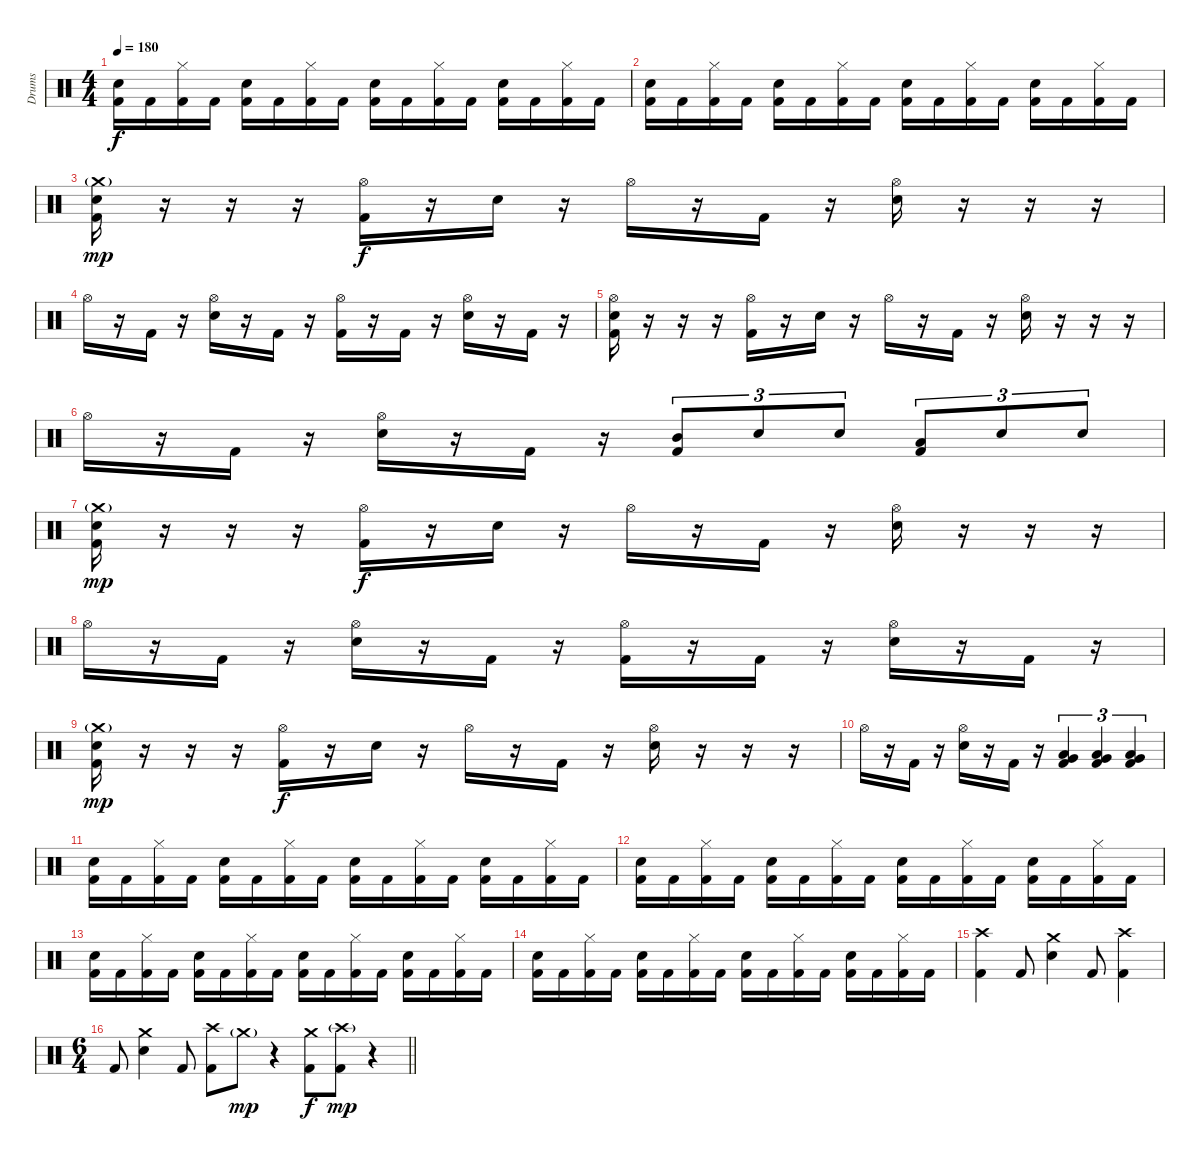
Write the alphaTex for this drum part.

\track ("Drums" "Drums") {instrument percussion}
\staff {score}
\articulation defaults
\ts (4 4)
\tempo 180
\clef neutral
\ks c
("Snare (hit) 2" "Kick (hit) 2").16{dy f} "Kick (hit) 2".16 ("Hi-Hat (closed)" "Kick (hit) 2").16 "Kick (hit) 2".16 ("Snare (hit) 2" "Kick (hit) 2").16 "Kick (hit) 2".16 ("Hi-Hat (closed)" "Kick (hit) 2").16 "Kick (hit) 2".16 ("Snare (hit) 2" "Kick (hit) 2").16 "Kick (hit) 2".16 ("Hi-Hat (closed)" "Kick (hit) 2").16 "Kick (hit) 2".16 ("Snare (hit) 2" "Kick (hit) 2").16 "Kick (hit) 2".16 ("Hi-Hat (closed)" "Kick (hit) 2").16 "Kick (hit) 2".16 |
("Snare (hit) 2" "Kick (hit) 2").16 "Kick (hit) 2".16 ("Hi-Hat (closed)" "Kick (hit) 2").16 "Kick (hit) 2".16 ("Snare (hit) 2" "Kick (hit) 2").16 "Kick (hit) 2".16 ("Hi-Hat (closed)" "Kick (hit) 2").16 "Kick (hit) 2".16 ("Snare (hit) 2" "Kick (hit) 2").16 "Kick (hit) 2".16 ("Hi-Hat (closed)" "Kick (hit) 2").16 "Kick (hit) 2".16 ("Snare (hit) 2" "Kick (hit) 2").16 "Kick (hit) 2".16 ("Hi-Hat (closed)" "Kick (hit) 2").16 "Kick (hit) 2".16 |
("Crash medium (hit)"{g} "Snare (hit) 2" "Kick (hit) 2").16{dy mp} r.16 r.16 r.16 ("Hi-Hat (open)" "Kick (hit) 2").16{dy f} r.16 "Snare (hit) 2".16 r.16 "Hi-Hat (open)".16 r.16 "Kick (hit) 2".16 r.16 ("Hi-Hat (open)" "Snare (hit) 2").16 r.16 r.16 r.16 |
"Hi-Hat (open)".16 r.16 "Kick (hit) 2".16 r.16 ("Hi-Hat (open)" "Snare (hit) 2").16 r.16 "Kick (hit) 2".16 r.16 ("Hi-Hat (open)" "Kick (hit) 2").16 r.16 "Kick (hit) 2".16 r.16 ("Hi-Hat (open)" "Snare (hit) 2").16 r.16 "Kick (hit) 2".16 r.16 |
("Hi-Hat (open)" "Snare (hit) 2" "Kick (hit) 2").16 r.16 r.16 r.16 ("Hi-Hat (open)" "Kick (hit) 2").16 r.16 "Snare (hit) 2".16 r.16 "Hi-Hat (open)".16 r.16 "Kick (hit) 2".16 r.16 ("Hi-Hat (open)" "Snare (hit) 2").16 r.16 r.16 r.16 |
"Hi-Hat (open)".16 r.16 "Kick (hit) 2".16 r.16 ("Hi-Hat (open)" "Snare (hit) 2").16 r.16 "Kick (hit) 2".16 r.16 ("Mid Tom (hit)" "Kick (hit) 2").8{tu (3 2)} "Electric Snare (hit)".8{tu (3 2)} "Electric Snare (hit)".8{tu (3 2)} ("Low Tom (hit)" "Kick (hit) 2").8{tu (3 2)} "Electric Snare (hit)".8{tu (3 2)} "Electric Snare (hit)".8{tu (3 2)} |
("Crash medium (hit)"{g} "Snare (hit) 2" "Kick (hit) 2").16{dy mp} r.16 r.16 r.16 ("Hi-Hat (open)" "Kick (hit) 2").16{dy f} r.16 "Snare (hit) 2".16 r.16 "Hi-Hat (open)".16 r.16 "Kick (hit) 2".16 r.16 ("Hi-Hat (open)" "Snare (hit) 2").16 r.16 r.16 r.16 |
"Hi-Hat (open)".16 r.16 "Kick (hit) 2".16 r.16 ("Hi-Hat (open)" "Snare (hit) 2").16 r.16 "Kick (hit) 2".16 r.16 ("Hi-Hat (open)" "Kick (hit) 2").16 r.16 "Kick (hit) 2".16 r.16 ("Hi-Hat (open)" "Snare (hit) 2").16 r.16 "Kick (hit) 2".16 r.16 |
("Crash medium (hit)"{g} "Snare (hit) 2" "Kick (hit) 2").16{dy mp} r.16 r.16 r.16 ("Hi-Hat (open)" "Kick (hit) 2").16{dy f} r.16 "Snare (hit) 2".16 r.16 "Hi-Hat (open)".16 r.16 "Kick (hit) 2".16 r.16 ("Hi-Hat (open)" "Snare (hit) 2").16 r.16 r.16 r.16 |
"Hi-Hat (open)".16 r.16 "Kick (hit) 2".16 r.16 ("Hi-Hat (open)" "Snare (hit) 2").16 r.16 "Kick (hit) 2".16 r.16 ("Very Low Tom (hit)" "Low Tom (hit)" "Kick (hit) 2").4{tu (3 2)} ("Very Low Tom (hit)" "Low Tom (hit)" "Kick (hit) 2").4{tu (3 2)} ("Very Low Tom (hit)" "Low Tom (hit)" "Kick (hit) 2").4{tu (3 2)} |
("Snare (hit) 2" "Kick (hit) 2").16 "Kick (hit) 2".16 ("Hi-Hat (closed)" "Kick (hit) 2").16 "Kick (hit) 2".16 ("Snare (hit) 2" "Kick (hit) 2").16 "Kick (hit) 2".16 ("Hi-Hat (closed)" "Kick (hit) 2").16 "Kick (hit) 2".16 ("Snare (hit) 2" "Kick (hit) 2").16 "Kick (hit) 2".16 ("Hi-Hat (closed)" "Kick (hit) 2").16 "Kick (hit) 2".16 ("Snare (hit) 2" "Kick (hit) 2").16 "Kick (hit) 2".16 ("Hi-Hat (closed)" "Kick (hit) 2").16 "Kick (hit) 2".16 |
("Snare (hit) 2" "Kick (hit) 2").16 "Kick (hit) 2".16 ("Hi-Hat (closed)" "Kick (hit) 2").16 "Kick (hit) 2".16 ("Snare (hit) 2" "Kick (hit) 2").16 "Kick (hit) 2".16 ("Hi-Hat (closed)" "Kick (hit) 2").16 "Kick (hit) 2".16 ("Snare (hit) 2" "Kick (hit) 2").16 "Kick (hit) 2".16 ("Hi-Hat (closed)" "Kick (hit) 2").16 "Kick (hit) 2".16 ("Snare (hit) 2" "Kick (hit) 2").16 "Kick (hit) 2".16 ("Hi-Hat (closed)" "Kick (hit) 2").16 "Kick (hit) 2".16 |
("Snare (hit) 2" "Kick (hit) 2").16 "Kick (hit) 2".16 ("Hi-Hat (closed)" "Kick (hit) 2").16 "Kick (hit) 2".16 ("Snare (hit) 2" "Kick (hit) 2").16 "Kick (hit) 2".16 ("Hi-Hat (closed)" "Kick (hit) 2").16 "Kick (hit) 2".16 ("Snare (hit) 2" "Kick (hit) 2").16 "Kick (hit) 2".16 ("Hi-Hat (closed)" "Kick (hit) 2").16 "Kick (hit) 2".16 ("Snare (hit) 2" "Kick (hit) 2").16 "Kick (hit) 2".16 ("Hi-Hat (closed)" "Kick (hit) 2").16 "Kick (hit) 2".16 |
("Snare (hit) 2" "Kick (hit) 2").16 "Kick (hit) 2".16 ("Hi-Hat (closed)" "Kick (hit) 2").16 "Kick (hit) 2".16 ("Snare (hit) 2" "Kick (hit) 2").16 "Kick (hit) 2".16 ("Hi-Hat (closed)" "Kick (hit) 2").16 "Kick (hit) 2".16 ("Snare (hit) 2" "Kick (hit) 2").16 "Kick (hit) 2".16 ("Hi-Hat (closed)" "Kick (hit) 2").16 "Kick (hit) 2".16 ("Snare (hit) 2" "Kick (hit) 2").16 "Kick (hit) 2".16 ("Hi-Hat (closed)" "Kick (hit) 2").16 "Kick (hit) 2".16 |
("Crash high (hit)" "Kick (hit) 2").4 "Kick (hit) 2".8 ("Crash medium (hit)" "Electric Snare (hit)").4 "Kick (hit) 2".8 ("Crash high (hit)" "Kick (hit) 2").4 |
\ts (6 4)
\barLineRight lightlight "Kick (hit) 2".8
("Crash medium (hit)" "Electric Snare (hit)").4 "Kick (hit) 2".8 ("Crash high (hit)" "Kick (hit) 2").8 "Crash medium (hit)"{g}.8{dy mp} r.4 ("Crash medium (hit)" "Kick (hit) 2").8{dy f} ("Crash high (hit)"{g} "Kick (hit) 2").8{dy mp} r.4
